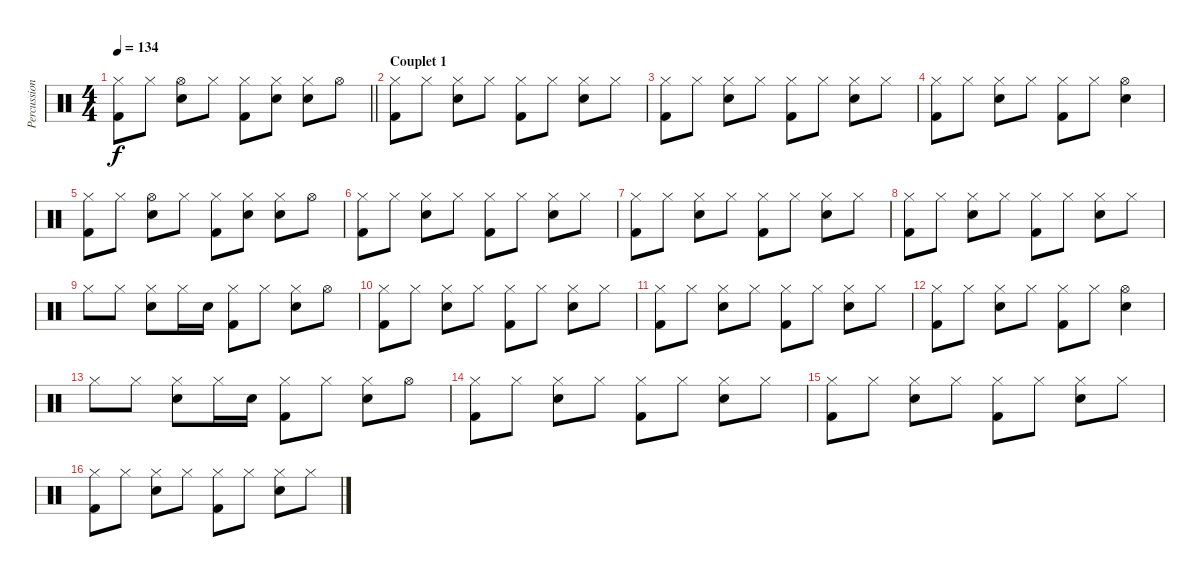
\track ("Percussion" "Percussion") {instrument percussion}
\staff {score}
\articulation defaults
\ts (4 4)
\tempo 134
\clef neutral
\barLineRight lightlight
\ks c
("Hi-Hat (closed)" "Kick (hit) 2").8{dy f} "Hi-Hat (closed)".8 ("Hi-Hat (open)" "Snare (hit) 2").8 "Hi-Hat (closed)".8 ("Hi-Hat (closed)" "Kick (hit) 2").8 ("Hi-Hat (closed)" "Snare (hit) 2").8 ("Hi-Hat (closed)" "Snare (hit) 2").8 "Hi-Hat (open)".8 |
\section ("" "Couplet 1")
("Hi-Hat (closed)" "Kick (hit) 2").8 "Hi-Hat (closed)".8 ("Hi-Hat (closed)" "Snare (hit) 2").8 "Hi-Hat (closed)".8 ("Hi-Hat (closed)" "Kick (hit) 2").8 "Hi-Hat (closed)".8 ("Hi-Hat (closed)" "Snare (hit) 2").8 "Hi-Hat (closed)".8 |
("Hi-Hat (closed)" "Kick (hit) 2").8 "Hi-Hat (closed)".8 ("Hi-Hat (closed)" "Snare (hit) 2").8 "Hi-Hat (closed)".8 ("Hi-Hat (closed)" "Kick (hit) 2").8 "Hi-Hat (closed)".8 ("Hi-Hat (closed)" "Snare (hit) 2").8 "Hi-Hat (closed)".8 |
("Hi-Hat (closed)" "Kick (hit) 2").8 "Hi-Hat (closed)".8 ("Hi-Hat (closed)" "Snare (hit) 2").8 "Hi-Hat (closed)".8 ("Hi-Hat (closed)" "Kick (hit) 2").8 "Hi-Hat (closed)".8 ("Hi-Hat (open)" "Snare (hit) 2").4 |
("Hi-Hat (closed)" "Kick (hit) 2").8 "Hi-Hat (closed)".8 ("Hi-Hat (open)" "Snare (hit) 2").8 "Hi-Hat (closed)".8 ("Hi-Hat (closed)" "Kick (hit) 2").8 ("Hi-Hat (closed)" "Snare (hit) 2").8 ("Hi-Hat (closed)" "Snare (hit) 2").8 "Hi-Hat (open)".8 |
("Hi-Hat (closed)" "Kick (hit) 2").8 "Hi-Hat (closed)".8 ("Hi-Hat (closed)" "Snare (hit) 2").8 "Hi-Hat (closed)".8 ("Hi-Hat (closed)" "Kick (hit) 2").8 "Hi-Hat (closed)".8 ("Hi-Hat (closed)" "Snare (hit) 2").8 "Hi-Hat (closed)".8 |
("Hi-Hat (closed)" "Kick (hit) 2").8 "Hi-Hat (closed)".8 ("Hi-Hat (closed)" "Snare (hit) 2").8 "Hi-Hat (closed)".8 ("Hi-Hat (closed)" "Kick (hit) 2").8 "Hi-Hat (closed)".8 ("Hi-Hat (closed)" "Snare (hit) 2").8 "Hi-Hat (closed)".8 |
("Hi-Hat (closed)" "Kick (hit) 2").8 "Hi-Hat (closed)".8 ("Hi-Hat (closed)" "Snare (hit) 2").8 "Hi-Hat (closed)".8 ("Hi-Hat (closed)" "Kick (hit) 2").8 "Hi-Hat (closed)".8 ("Hi-Hat (closed)" "Snare (hit) 2").8 "Hi-Hat (closed)".8 |
"Hi-Hat (closed)".8 "Hi-Hat (closed)".8 ("Hi-Hat (closed)" "Snare (hit) 2").8 "Hi-Hat (closed)".16 "Snare (hit) 2".16 ("Hi-Hat (closed)" "Kick (hit) 2").8 "Hi-Hat (closed)".8 ("Hi-Hat (closed)" "Snare (hit) 2").8 "Hi-Hat (open)".8 |
("Hi-Hat (closed)" "Kick (hit) 2").8 "Hi-Hat (closed)".8 ("Hi-Hat (closed)" "Snare (hit) 2").8 "Hi-Hat (closed)".8 ("Hi-Hat (closed)" "Kick (hit) 2").8 "Hi-Hat (closed)".8 ("Hi-Hat (closed)" "Snare (hit) 2").8 "Hi-Hat (closed)".8 |
("Hi-Hat (closed)" "Kick (hit) 2").8 "Hi-Hat (closed)".8 ("Hi-Hat (closed)" "Snare (hit) 2").8 "Hi-Hat (closed)".8 ("Hi-Hat (closed)" "Kick (hit) 2").8 "Hi-Hat (closed)".8 ("Hi-Hat (closed)" "Snare (hit) 2").8 "Hi-Hat (closed)".8 |
("Hi-Hat (closed)" "Kick (hit) 2").8 "Hi-Hat (closed)".8 ("Hi-Hat (closed)" "Snare (hit) 2").8 "Hi-Hat (closed)".8 ("Hi-Hat (closed)" "Kick (hit) 2").8 "Hi-Hat (closed)".8 ("Hi-Hat (open)" "Snare (hit) 2").4 |
"Hi-Hat (closed)".8 "Hi-Hat (closed)".8 ("Hi-Hat (closed)" "Snare (hit) 2").8 "Hi-Hat (closed)".16 "Snare (hit) 2".16 ("Hi-Hat (closed)" "Kick (hit) 2").8 "Hi-Hat (closed)".8 ("Hi-Hat (closed)" "Snare (hit) 2").8 "Hi-Hat (open)".8 |
("Hi-Hat (closed)" "Kick (hit) 2").8 "Hi-Hat (closed)".8 ("Hi-Hat (closed)" "Snare (hit) 2").8 "Hi-Hat (closed)".8 ("Hi-Hat (closed)" "Kick (hit) 2").8 "Hi-Hat (closed)".8 ("Hi-Hat (closed)" "Snare (hit) 2").8 "Hi-Hat (closed)".8 |
("Hi-Hat (closed)" "Kick (hit) 2").8 "Hi-Hat (closed)".8 ("Hi-Hat (closed)" "Snare (hit) 2").8 "Hi-Hat (closed)".8 ("Hi-Hat (closed)" "Kick (hit) 2").8 "Hi-Hat (closed)".8 ("Hi-Hat (closed)" "Snare (hit) 2").8 "Hi-Hat (closed)".8 |
("Hi-Hat (closed)" "Kick (hit) 2").8 "Hi-Hat (closed)".8 ("Hi-Hat (closed)" "Snare (hit) 2").8 "Hi-Hat (closed)".8 ("Hi-Hat (closed)" "Kick (hit) 2").8 "Hi-Hat (closed)".8 ("Hi-Hat (closed)" "Snare (hit) 2").8 "Hi-Hat (closed)".8
